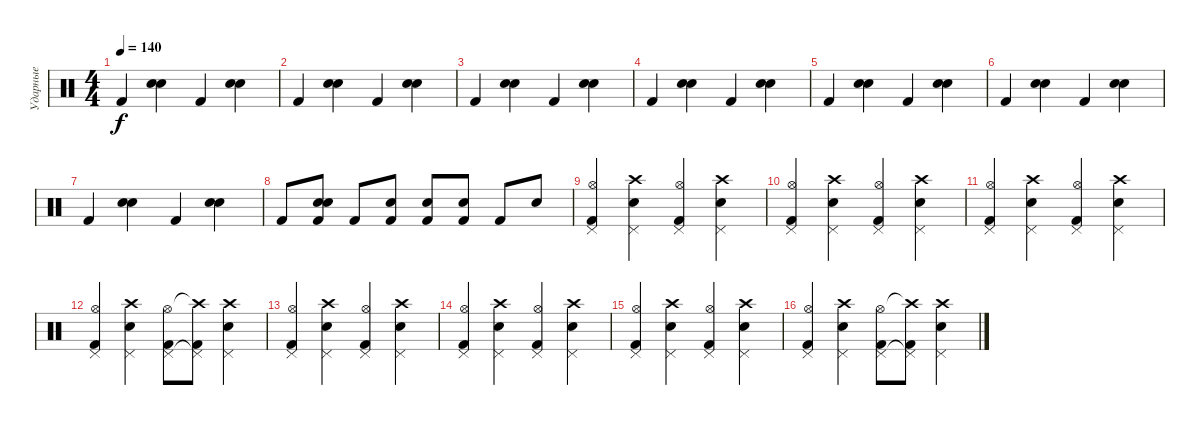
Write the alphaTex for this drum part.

\track ("Ударные" "Ударные") {instrument percussion}
\staff {score}
\articulation defaults
\ts (4 4)
\tempo 140
\clef neutral
\ks c "Kick (hit) 2".4{dy f}
("Hand Clap (hit)" "Electric Snare (hit)").4 "Kick (hit) 2".4 ("Hand Clap (hit)" "Electric Snare (hit)").4 |
"Kick (hit) 2".4 ("Hand Clap (hit)" "Electric Snare (hit)").4 "Kick (hit) 2".4 ("Hand Clap (hit)" "Electric Snare (hit)").4 |
"Kick (hit) 2".4 ("Hand Clap (hit)" "Electric Snare (hit)").4 "Kick (hit) 2".4 ("Hand Clap (hit)" "Electric Snare (hit)").4 |
"Kick (hit) 2".4 ("Hand Clap (hit)" "Electric Snare (hit)").4 "Kick (hit) 2".4 ("Hand Clap (hit)" "Electric Snare (hit)").4 |
"Kick (hit) 2".4 ("Hand Clap (hit)" "Electric Snare (hit)").4 "Kick (hit) 2".4 ("Hand Clap (hit)" "Electric Snare (hit)").4 |
"Kick (hit) 2".4 ("Hand Clap (hit)" "Electric Snare (hit)").4 "Kick (hit) 2".4 ("Hand Clap (hit)" "Electric Snare (hit)").4 |
"Kick (hit) 2".4 ("Hand Clap (hit)" "Electric Snare (hit)").4 "Kick (hit) 2".4 ("Hand Clap (hit)" "Electric Snare (hit)").4 |
"Kick (hit) 2".8 ("Hand Clap (hit)" "Electric Snare (hit)" "Kick (hit) 2").8 "Kick (hit) 2".8 ("Electric Snare (hit)" "Kick (hit) 2").8 ("Electric Snare (hit)" "Kick (hit) 2").8 ("Electric Snare (hit)" "Kick (hit) 2").8 "Kick (hit) 2".8 "Electric Snare (hit)".8 |
("Hi-Hat (open)" "Pedal Hi-Hat (hit)" "Kick (hit) 2").4 ("Crash high (hit)" "Pedal Hi-Hat (hit)" "Electric Snare (hit)").4 ("Hi-Hat (open)" "Pedal Hi-Hat (hit)" "Kick (hit) 2").4 ("Crash high (hit)" "Pedal Hi-Hat (hit)" "Electric Snare (hit)").4 |
("Hi-Hat (open)" "Pedal Hi-Hat (hit)" "Kick (hit) 2").4 ("Crash high (hit)" "Pedal Hi-Hat (hit)" "Electric Snare (hit)").4 ("Hi-Hat (open)" "Pedal Hi-Hat (hit)" "Kick (hit) 2").4 ("Crash high (hit)" "Pedal Hi-Hat (hit)" "Electric Snare (hit)").4 |
("Hi-Hat (open)" "Pedal Hi-Hat (hit)" "Kick (hit) 2").4 ("Crash high (hit)" "Pedal Hi-Hat (hit)" "Electric Snare (hit)").4 ("Hi-Hat (open)" "Pedal Hi-Hat (hit)" "Kick (hit) 2").4 ("Crash high (hit)" "Pedal Hi-Hat (hit)" "Electric Snare (hit)").4 |
("Hi-Hat (open)" "Pedal Hi-Hat (hit)" "Kick (hit) 2").4 ("Crash high (hit)" "Pedal Hi-Hat (hit)" "Electric Snare (hit)").4 ("Hi-Hat (open)" "Pedal Hi-Hat (hit)" "Kick (hit) 2").8 ("Crash high (hit)"{t} "Pedal Hi-Hat (hit)"{t} "Kick (hit) 2").8 ("Crash high (hit)" "Pedal Hi-Hat (hit)" "Electric Snare (hit)").4 |
("Hi-Hat (open)" "Pedal Hi-Hat (hit)" "Kick (hit) 2").4 ("Crash high (hit)" "Pedal Hi-Hat (hit)" "Electric Snare (hit)").4 ("Hi-Hat (open)" "Pedal Hi-Hat (hit)" "Kick (hit) 2").4 ("Crash high (hit)" "Pedal Hi-Hat (hit)" "Electric Snare (hit)").4 |
("Hi-Hat (open)" "Pedal Hi-Hat (hit)" "Kick (hit) 2").4 ("Crash high (hit)" "Pedal Hi-Hat (hit)" "Electric Snare (hit)").4 ("Hi-Hat (open)" "Pedal Hi-Hat (hit)" "Kick (hit) 2").4 ("Crash high (hit)" "Pedal Hi-Hat (hit)" "Electric Snare (hit)").4 |
("Hi-Hat (open)" "Pedal Hi-Hat (hit)" "Kick (hit) 2").4 ("Crash high (hit)" "Pedal Hi-Hat (hit)" "Electric Snare (hit)").4 ("Hi-Hat (open)" "Pedal Hi-Hat (hit)" "Kick (hit) 2").4 ("Crash high (hit)" "Pedal Hi-Hat (hit)" "Electric Snare (hit)").4 |
("Hi-Hat (open)" "Pedal Hi-Hat (hit)" "Kick (hit) 2").4 ("Crash high (hit)" "Pedal Hi-Hat (hit)" "Electric Snare (hit)").4 ("Hi-Hat (open)" "Pedal Hi-Hat (hit)" "Kick (hit) 2").8 ("Crash high (hit)"{t} "Pedal Hi-Hat (hit)"{t} "Kick (hit) 2").8 ("Crash high (hit)" "Pedal Hi-Hat (hit)" "Electric Snare (hit)").4
